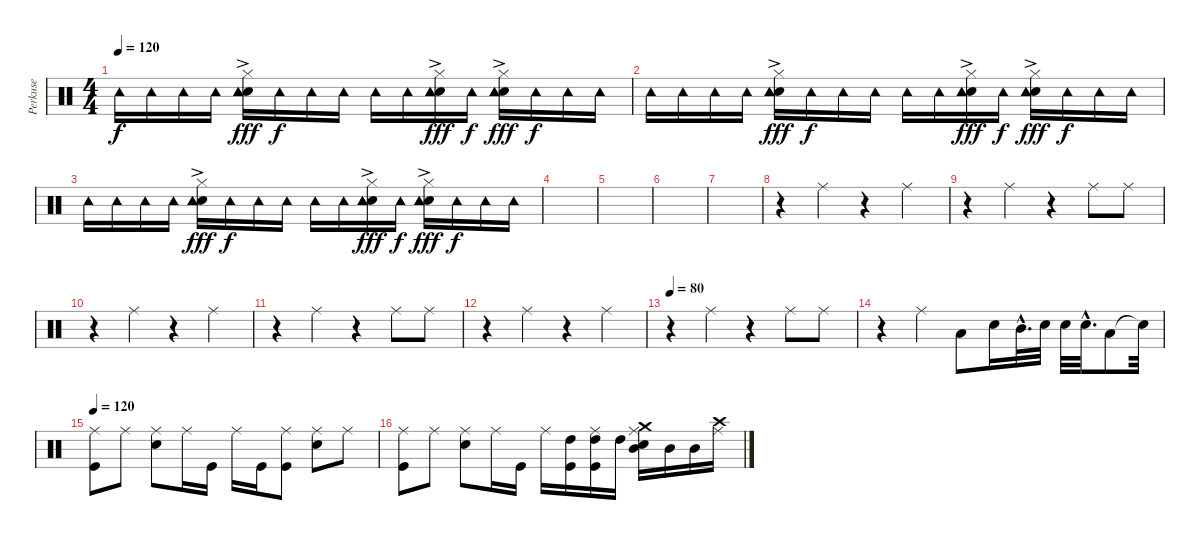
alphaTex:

\track ("Perkuse" "Perkuse") {instrument percussion}
\staff {score}
\articulation defaults
\ts (4 4)
\tempo 120
\clef neutral
\ks c "Tambourine (hit)".16{dy f} "Tambourine (hit)".16 "Tambourine (hit)".16 "Tambourine (hit)".16
("Hi-Hat (closed)" "Hand Clap (hit)" "Tambourine (hit)"{ac} "Tambourine (hit)"{ac} "Tambourine (hit)"{ac}).16{dy fff} "Tambourine (hit)".16{dy f} "Tambourine (hit)".16 "Tambourine (hit)".16 "Tambourine (hit)".16 "Tambourine (hit)".16 ("Hi-Hat (closed)" "Hand Clap (hit)" "Tambourine (hit)"{ac} "Tambourine (hit)"{ac} "Tambourine (hit)"{ac}).16{dy fff} "Tambourine (hit)".16{dy f} ("Hi-Hat (closed)" "Hand Clap (hit)" "Tambourine (hit)"{ac} "Tambourine (hit)"{ac} "Tambourine (hit)"{ac}).16{dy fff} "Tambourine (hit)".16{dy f} "Tambourine (hit)".16 "Tambourine (hit)".16 |
"Tambourine (hit)".16 "Tambourine (hit)".16 "Tambourine (hit)".16 "Tambourine (hit)".16 ("Hi-Hat (closed)" "Hand Clap (hit)" "Tambourine (hit)"{ac} "Tambourine (hit)"{ac} "Tambourine (hit)"{ac}).16{dy fff} "Tambourine (hit)".16{dy f} "Tambourine (hit)".16 "Tambourine (hit)".16 "Tambourine (hit)".16 "Tambourine (hit)".16 ("Hi-Hat (closed)" "Hand Clap (hit)" "Tambourine (hit)"{ac} "Tambourine (hit)"{ac} "Tambourine (hit)"{ac}).16{dy fff} "Tambourine (hit)".16{dy f} ("Hi-Hat (closed)" "Hand Clap (hit)" "Tambourine (hit)"{ac} "Tambourine (hit)"{ac} "Tambourine (hit)"{ac}).16{dy fff} "Tambourine (hit)".16{dy f} "Tambourine (hit)".16 "Tambourine (hit)".16 |
"Tambourine (hit)".16 "Tambourine (hit)".16 "Tambourine (hit)".16 "Tambourine (hit)".16 ("Hi-Hat (closed)" "Hand Clap (hit)" "Tambourine (hit)"{ac} "Tambourine (hit)"{ac} "Tambourine (hit)"{ac}).16{dy fff} "Tambourine (hit)".16{dy f} "Tambourine (hit)".16 "Tambourine (hit)".16 "Tambourine (hit)".16 "Tambourine (hit)".16 ("Hi-Hat (closed)" "Hand Clap (hit)" "Tambourine (hit)"{ac} "Tambourine (hit)"{ac} "Tambourine (hit)"{ac}).16{dy fff} "Tambourine (hit)".16{dy f} ("Hi-Hat (closed)" "Hand Clap (hit)" "Tambourine (hit)"{ac} "Tambourine (hit)"{ac} "Tambourine (hit)"{ac}).16{dy fff} "Tambourine (hit)".16{dy f} "Tambourine (hit)".16 "Tambourine (hit)".16 |
|
|
|
|
r.4 "Ride (middle)".4 r.4 "Ride (middle)".4 |
r.4 "Ride (middle)".4 r.4 "Ride (middle)".8 "Ride (middle)".8 |
r.4 "Ride (middle)".4 r.4 "Ride (middle)".4 |
r.4 "Ride (middle)".4 r.4 "Ride (middle)".8 "Ride (middle)".8 |
r.4 "Ride (middle)".4 r.4 "Ride (middle)".4 |
\tempo 80
r.4 "Ride (middle)".4 r.4 "Ride (middle)".8 "Ride (middle)".8 |
r.4 "Ride (middle)".4 "Low Tom (hit)".8{volume 14} "Snare (hit) 2".16 "Mid Tom (hit)"{hac}.32{d} "Snare (hit) 2".32 "Snare (hit) 2".32 "Snare (hit) 2"{hac}.32{d} "Low Tom (hit)".8 "Snare (hit)"{t}.32 |
\tempo 120
("Ride (middle)" "Kick (hit)").8 "Ride (middle)".8 ("Ride (middle)" "Snare (hit) 2").8 "Ride (middle)".16 "Kick (hit)".16 "Ride (middle)".16 "Kick (hit)".16 ("Ride (middle)" "Kick (hit)").8 ("Ride (middle)" "Snare (hit) 2").8 "Ride (middle)".8 |
("Ride (middle)" "Kick (hit)").8 "Ride (middle)".8 ("Ride (middle)" "Snare (hit) 2").8 "Ride (middle)".16 "Kick (hit)".16 "Ride (middle)".16 ("Kick (hit)" "High Tom (hit)").16 ("Ride (middle)" "Kick (hit)" "High Tom (hit)").16 "High Tom (hit)".16 ("Ride (middle)" "Crash medium (hit)" "Snare (hit) 2" "Mid Tom (hit)").16 "Mid Tom (hit)".16 "Mid Tom (hit)".16 ("Ride (middle)" "Crash high (hit)").16
